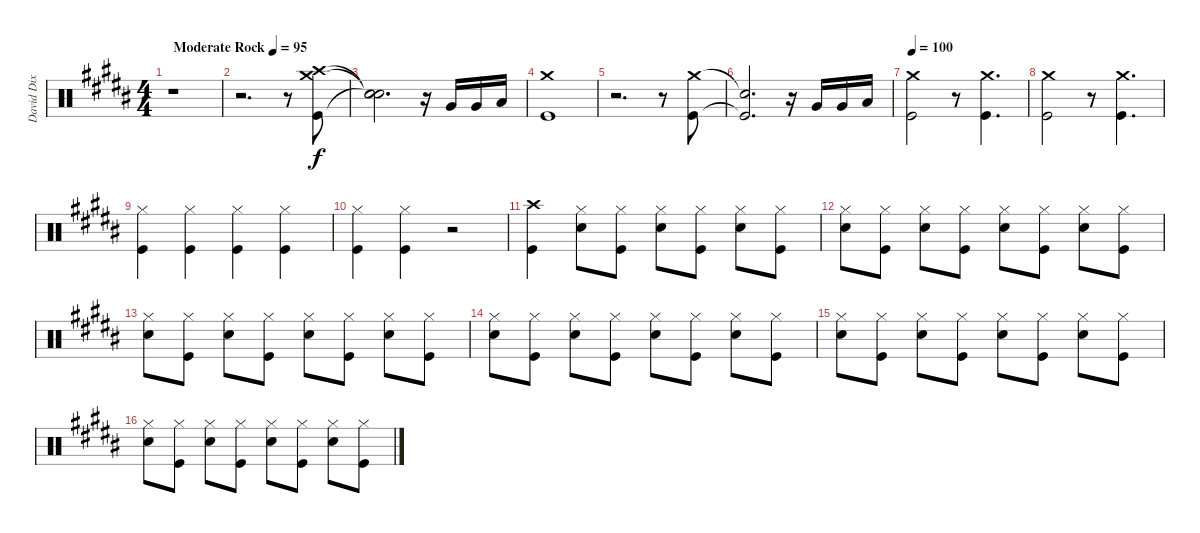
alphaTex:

\track ("David Dix Drums" "David Dix ") {instrument percussion}
\staff {score}
\articulation defaults
\ts (4 4)
\tempo (95 "Moderate Rock")
\clef neutral
\ks g#minor
r.1{dy f} |
r.2{d} r.8 ("Crash high (hit)" "Crash medium (hit)" "Kick (hit)").8 |
("Snare (hit)"{t} "Snare (hit)"{t} "Snare (hit)"{t}).2{d} r.16 "Very Low Tom (hit)".16 "Very Low Tom (hit)".16 "Low Floor Tom (hit)".16 |
("Crash medium (hit)" "Kick (hit)").1 |
r.2{d} r.8 ("Crash medium (hit)" "Kick (hit)").8 |
("Snare (hit)"{t} "Kick (hit)"{t}).2{d} r.16 "Very Low Tom (hit)".16 "Very Low Tom (hit)".16 "Low Floor Tom (hit)".16 |
\tempo 100
("Crash medium (hit)" "Kick (hit)").2 r.8 ("Crash medium (hit)" "Kick (hit)").4{d} |
("Crash medium (hit)" "Kick (hit)").2 r.8 ("Crash medium (hit)" "Kick (hit)").4{d} |
("Hi-Hat (closed)" "Kick (hit)").4 ("Hi-Hat (closed)" "Kick (hit)").4 ("Hi-Hat (closed)" "Kick (hit)").4 ("Hi-Hat (closed)" "Kick (hit)").4 |
("Hi-Hat (closed)" "Kick (hit)").4 ("Hi-Hat (closed)" "Kick (hit)").4 r.2 |
("Crash high (hit)" "Kick (hit)").4 ("Hi-Hat (closed)" "Snare (hit) 2").8 ("Hi-Hat (closed)" "Kick (hit)").8 ("Hi-Hat (closed)" "Snare (hit) 2").8 ("Hi-Hat (closed)" "Kick (hit)").8 ("Hi-Hat (closed)" "Snare (hit) 2").8 ("Hi-Hat (closed)" "Kick (hit)").8 |
("Hi-Hat (closed)" "Snare (hit) 2").8 ("Hi-Hat (closed)" "Kick (hit)").8 ("Hi-Hat (closed)" "Snare (hit) 2").8 ("Hi-Hat (closed)" "Kick (hit)").8 ("Hi-Hat (closed)" "Snare (hit) 2").8 ("Hi-Hat (closed)" "Kick (hit)").8 ("Hi-Hat (closed)" "Snare (hit) 2").8 ("Hi-Hat (closed)" "Kick (hit)").8 |
("Hi-Hat (closed)" "Snare (hit) 2").8 ("Hi-Hat (closed)" "Kick (hit)").8 ("Hi-Hat (closed)" "Snare (hit) 2").8 ("Hi-Hat (closed)" "Kick (hit)").8 ("Hi-Hat (closed)" "Snare (hit) 2").8 ("Hi-Hat (closed)" "Kick (hit)").8 ("Hi-Hat (closed)" "Snare (hit) 2").8 ("Hi-Hat (closed)" "Kick (hit)").8 |
("Hi-Hat (closed)" "Snare (hit) 2").8 ("Hi-Hat (closed)" "Kick (hit)").8 ("Hi-Hat (closed)" "Snare (hit) 2").8 ("Hi-Hat (closed)" "Kick (hit)").8 ("Hi-Hat (closed)" "Snare (hit) 2").8 ("Hi-Hat (closed)" "Kick (hit)").8 ("Hi-Hat (closed)" "Snare (hit) 2").8 ("Hi-Hat (closed)" "Kick (hit)").8 |
("Hi-Hat (closed)" "Snare (hit) 2").8 ("Hi-Hat (closed)" "Kick (hit)").8 ("Hi-Hat (closed)" "Snare (hit) 2").8 ("Hi-Hat (closed)" "Kick (hit)").8 ("Hi-Hat (closed)" "Snare (hit) 2").8 ("Hi-Hat (closed)" "Kick (hit)").8 ("Hi-Hat (closed)" "Snare (hit) 2").8 ("Hi-Hat (closed)" "Kick (hit)").8 |
("Hi-Hat (closed)" "Snare (hit) 2").8 ("Hi-Hat (closed)" "Kick (hit)").8 ("Hi-Hat (closed)" "Snare (hit) 2").8 ("Hi-Hat (closed)" "Kick (hit)").8 ("Hi-Hat (closed)" "Snare (hit) 2").8 ("Hi-Hat (closed)" "Kick (hit)").8 ("Hi-Hat (closed)" "Snare (hit) 2").8 ("Hi-Hat (closed)" "Kick (hit)").8
